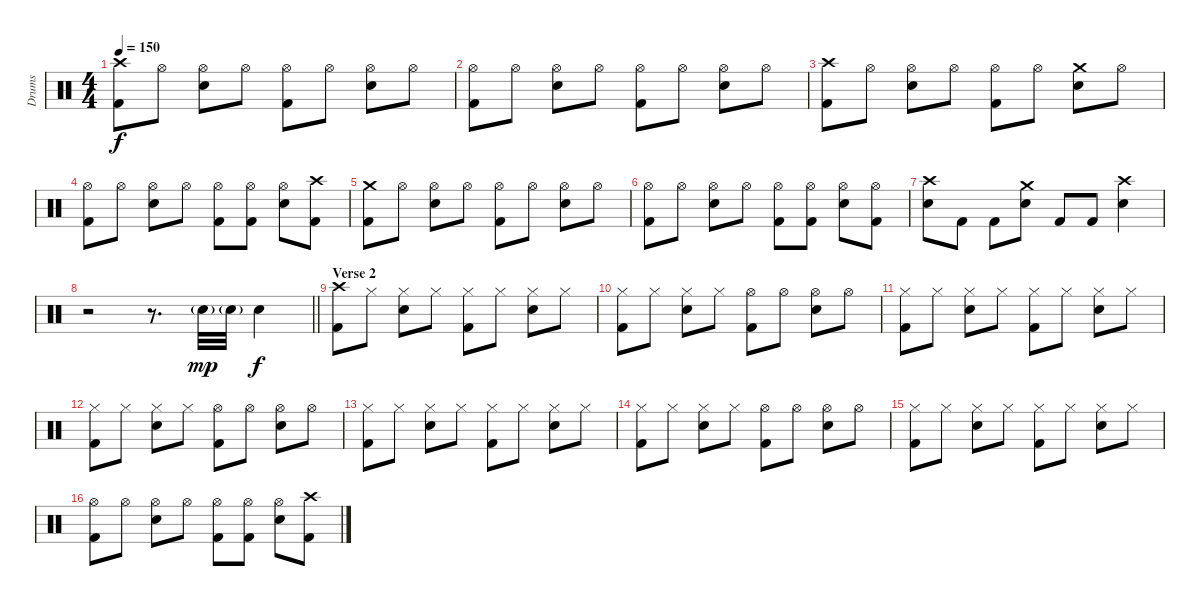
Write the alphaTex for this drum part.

\track ("Drums" "Drums") {instrument percussion}
\staff {score}
\articulation defaults
\ts (4 4)
\tempo 150
\clef neutral
\ks c
("Crash high (hit)" "Kick (hit) 2").8{dy f} "Hi-Hat (open)".8 ("Hi-Hat (open)" "Electric Snare (hit)").8 "Hi-Hat (open)".8 ("Hi-Hat (open)" "Kick (hit) 2").8 "Hi-Hat (open)".8 ("Hi-Hat (open)" "Electric Snare (hit)").8 "Hi-Hat (open)".8 |
("Hi-Hat (open)" "Kick (hit) 2").8 "Hi-Hat (open)".8 ("Hi-Hat (open)" "Electric Snare (hit)").8 "Hi-Hat (open)".8 ("Hi-Hat (open)" "Kick (hit) 2").8 "Hi-Hat (open)".8 ("Hi-Hat (open)" "Electric Snare (hit)").8 "Hi-Hat (open)".8 |
("Crash high (hit)" "Kick (hit) 2").8 "Hi-Hat (open)".8 ("Hi-Hat (open)" "Electric Snare (hit)").8 "Hi-Hat (open)".8 ("Hi-Hat (open)" "Kick (hit) 2").8 "Hi-Hat (open)".8 ("Crash medium (hit)" "Electric Snare (hit)").8 "Hi-Hat (open)".8 |
("Hi-Hat (open)" "Kick (hit) 2").8 "Hi-Hat (open)".8 ("Hi-Hat (open)" "Electric Snare (hit)").8 "Hi-Hat (open)".8 ("Hi-Hat (open)" "Kick (hit) 2").8 ("Hi-Hat (open)" "Kick (hit) 2").8 ("Hi-Hat (open)" "Electric Snare (hit)").8 ("Crash high (hit)" "Kick (hit) 2").8 |
("Crash medium (hit)" "Kick (hit) 2").8 "Hi-Hat (open)".8 ("Hi-Hat (open)" "Electric Snare (hit)").8 "Hi-Hat (open)".8 ("Hi-Hat (open)" "Kick (hit) 2").8 "Hi-Hat (open)".8 ("Hi-Hat (open)" "Electric Snare (hit)").8 "Hi-Hat (open)".8 |
("Hi-Hat (open)" "Kick (hit) 2").8 "Hi-Hat (open)".8 ("Hi-Hat (open)" "Electric Snare (hit)").8 "Hi-Hat (open)".8 ("Hi-Hat (open)" "Kick (hit) 2").8 ("Hi-Hat (open)" "Kick (hit) 2").8 ("Hi-Hat (open)" "Electric Snare (hit)").8 ("Hi-Hat (open)" "Kick (hit) 2").8 |
("Crash high (hit)" "Electric Snare (hit)").8 "Kick (hit) 2".8 "Kick (hit) 2".8 ("Crash medium (hit)" "Electric Snare (hit)").8 "Kick (hit) 2".8 "Kick (hit) 2".8 ("Crash high (hit)" "Electric Snare (hit)").4 |
\barLineRight lightlight
r.2 r.8{d} "Electric Snare (hit)"{g}.32{dy mp} "Electric Snare (hit)"{g}.32 "Electric Snare (hit)".4{dy f} |
\section ("" "Verse 2")
("Crash high (hit)" "Kick (hit) 2").8 "Hi-Hat (closed)".8 ("Hi-Hat (closed)" "Electric Snare (hit)").8 "Hi-Hat (closed)".8 ("Hi-Hat (closed)" "Kick (hit) 2").8 "Hi-Hat (closed)".8 ("Hi-Hat (closed)" "Electric Snare (hit)").8 "Hi-Hat (closed)".8 |
("Hi-Hat (closed)" "Kick (hit) 2").8 "Hi-Hat (closed)".8 ("Hi-Hat (closed)" "Electric Snare (hit)").8 "Hi-Hat (closed)".8 ("Hi-Hat (open)" "Kick (hit) 2").8 "Hi-Hat (open)".8 ("Hi-Hat (open)" "Electric Snare (hit)").8 "Hi-Hat (open)".8 |
("Hi-Hat (closed)" "Kick (hit) 2").8 "Hi-Hat (closed)".8 ("Hi-Hat (closed)" "Electric Snare (hit)").8 "Hi-Hat (closed)".8 ("Hi-Hat (closed)" "Kick (hit) 2").8 "Hi-Hat (closed)".8 ("Hi-Hat (closed)" "Electric Snare (hit)").8 "Hi-Hat (closed)".8 |
("Hi-Hat (closed)" "Kick (hit) 2").8 "Hi-Hat (closed)".8 ("Hi-Hat (closed)" "Electric Snare (hit)").8 "Hi-Hat (closed)".8 ("Hi-Hat (open)" "Kick (hit) 2").8 "Hi-Hat (open)".8 ("Hi-Hat (open)" "Electric Snare (hit)").8 "Hi-Hat (open)".8 |
("Hi-Hat (closed)" "Kick (hit) 2").8 "Hi-Hat (closed)".8 ("Hi-Hat (closed)" "Electric Snare (hit)").8 "Hi-Hat (closed)".8 ("Hi-Hat (closed)" "Kick (hit) 2").8 "Hi-Hat (closed)".8 ("Hi-Hat (closed)" "Electric Snare (hit)").8 "Hi-Hat (closed)".8 |
("Hi-Hat (closed)" "Kick (hit) 2").8 "Hi-Hat (closed)".8 ("Hi-Hat (closed)" "Electric Snare (hit)").8 "Hi-Hat (closed)".8 ("Hi-Hat (open)" "Kick (hit) 2").8 "Hi-Hat (open)".8 ("Hi-Hat (open)" "Electric Snare (hit)").8 "Hi-Hat (open)".8 |
("Hi-Hat (closed)" "Kick (hit) 2").8 "Hi-Hat (closed)".8 ("Hi-Hat (closed)" "Electric Snare (hit)").8 "Hi-Hat (closed)".8 ("Hi-Hat (closed)" "Kick (hit) 2").8 "Hi-Hat (closed)".8 ("Hi-Hat (closed)" "Electric Snare (hit)").8 "Hi-Hat (closed)".8 |
("Hi-Hat (open)" "Kick (hit) 2").8 "Hi-Hat (open)".8 ("Hi-Hat (open)" "Electric Snare (hit)").8 "Hi-Hat (open)".8 ("Hi-Hat (open)" "Kick (hit) 2").8 ("Hi-Hat (open)" "Kick (hit) 2").8 ("Hi-Hat (open)" "Electric Snare (hit)").8 ("Crash high (hit)" "Kick (hit) 2").8
